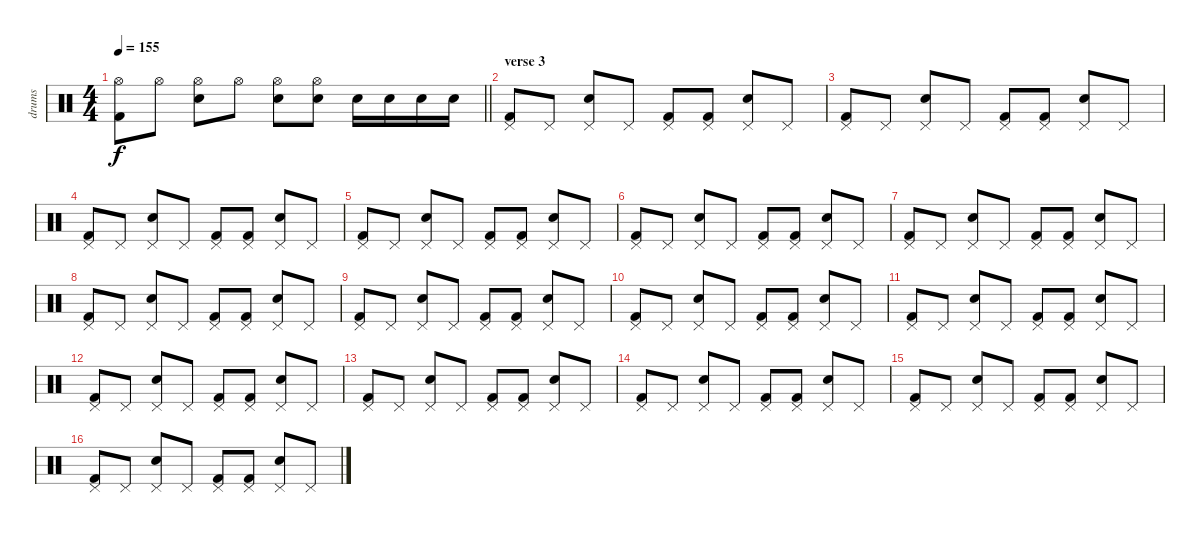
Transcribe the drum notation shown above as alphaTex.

\track ("drums" "drums") {instrument percussion}
\staff {score}
\articulation defaults
\ts (4 4)
\tempo 155
\clef neutral
\barLineRight lightlight
\ks c
("Kick (hit) 2" "Hi-Hat (open)").8{dy f} "Hi-Hat (open)".8 ("Electric Snare (hit)" "Hi-Hat (open)").8 "Hi-Hat (open)".8 ("Electric Snare (hit)" "Hi-Hat (open)").8 ("Electric Snare (hit)" "Hi-Hat (open)").8 "Electric Snare (hit)".16 "Electric Snare (hit)".16 "Electric Snare (hit)".16 "Electric Snare (hit)".16 |
\section ("" "verse 3")
("Kick (hit) 2" "Pedal Hi-Hat (hit)").8 "Pedal Hi-Hat (hit)".8 ("Electric Snare (hit)" "Pedal Hi-Hat (hit)").8 "Pedal Hi-Hat (hit)".8 ("Kick (hit) 2" "Pedal Hi-Hat (hit)").8 ("Kick (hit) 2" "Pedal Hi-Hat (hit)").8 ("Electric Snare (hit)" "Pedal Hi-Hat (hit)").8 "Pedal Hi-Hat (hit)".8 |
("Kick (hit) 2" "Pedal Hi-Hat (hit)").8 "Pedal Hi-Hat (hit)".8 ("Electric Snare (hit)" "Pedal Hi-Hat (hit)").8 "Pedal Hi-Hat (hit)".8 ("Kick (hit) 2" "Pedal Hi-Hat (hit)").8 ("Kick (hit) 2" "Pedal Hi-Hat (hit)").8 ("Electric Snare (hit)" "Pedal Hi-Hat (hit)").8 "Pedal Hi-Hat (hit)".8 |
("Kick (hit) 2" "Pedal Hi-Hat (hit)").8 "Pedal Hi-Hat (hit)".8 ("Electric Snare (hit)" "Pedal Hi-Hat (hit)").8 "Pedal Hi-Hat (hit)".8 ("Kick (hit) 2" "Pedal Hi-Hat (hit)").8 ("Kick (hit) 2" "Pedal Hi-Hat (hit)").8 ("Electric Snare (hit)" "Pedal Hi-Hat (hit)").8 "Pedal Hi-Hat (hit)".8 |
("Kick (hit) 2" "Pedal Hi-Hat (hit)").8 "Pedal Hi-Hat (hit)".8 ("Electric Snare (hit)" "Pedal Hi-Hat (hit)").8 "Pedal Hi-Hat (hit)".8 ("Kick (hit) 2" "Pedal Hi-Hat (hit)").8 ("Kick (hit) 2" "Pedal Hi-Hat (hit)").8 ("Electric Snare (hit)" "Pedal Hi-Hat (hit)").8 "Pedal Hi-Hat (hit)".8 |
("Kick (hit) 2" "Pedal Hi-Hat (hit)").8 "Pedal Hi-Hat (hit)".8 ("Electric Snare (hit)" "Pedal Hi-Hat (hit)").8 "Pedal Hi-Hat (hit)".8 ("Kick (hit) 2" "Pedal Hi-Hat (hit)").8 ("Kick (hit) 2" "Pedal Hi-Hat (hit)").8 ("Electric Snare (hit)" "Pedal Hi-Hat (hit)").8 "Pedal Hi-Hat (hit)".8 |
("Kick (hit) 2" "Pedal Hi-Hat (hit)").8 "Pedal Hi-Hat (hit)".8 ("Electric Snare (hit)" "Pedal Hi-Hat (hit)").8 "Pedal Hi-Hat (hit)".8 ("Kick (hit) 2" "Pedal Hi-Hat (hit)").8 ("Kick (hit) 2" "Pedal Hi-Hat (hit)").8 ("Electric Snare (hit)" "Pedal Hi-Hat (hit)").8 "Pedal Hi-Hat (hit)".8 |
("Kick (hit) 2" "Pedal Hi-Hat (hit)").8 "Pedal Hi-Hat (hit)".8 ("Electric Snare (hit)" "Pedal Hi-Hat (hit)").8 "Pedal Hi-Hat (hit)".8 ("Kick (hit) 2" "Pedal Hi-Hat (hit)").8 ("Kick (hit) 2" "Pedal Hi-Hat (hit)").8 ("Electric Snare (hit)" "Pedal Hi-Hat (hit)").8 "Pedal Hi-Hat (hit)".8 |
("Kick (hit) 2" "Pedal Hi-Hat (hit)").8 "Pedal Hi-Hat (hit)".8 ("Electric Snare (hit)" "Pedal Hi-Hat (hit)").8 "Pedal Hi-Hat (hit)".8 ("Kick (hit) 2" "Pedal Hi-Hat (hit)").8 ("Kick (hit) 2" "Pedal Hi-Hat (hit)").8 ("Electric Snare (hit)" "Pedal Hi-Hat (hit)").8 "Pedal Hi-Hat (hit)".8 |
("Kick (hit) 2" "Pedal Hi-Hat (hit)").8 "Pedal Hi-Hat (hit)".8 ("Electric Snare (hit)" "Pedal Hi-Hat (hit)").8 "Pedal Hi-Hat (hit)".8 ("Kick (hit) 2" "Pedal Hi-Hat (hit)").8 ("Kick (hit) 2" "Pedal Hi-Hat (hit)").8 ("Electric Snare (hit)" "Pedal Hi-Hat (hit)").8 "Pedal Hi-Hat (hit)".8 |
("Kick (hit) 2" "Pedal Hi-Hat (hit)").8 "Pedal Hi-Hat (hit)".8 ("Electric Snare (hit)" "Pedal Hi-Hat (hit)").8 "Pedal Hi-Hat (hit)".8 ("Kick (hit) 2" "Pedal Hi-Hat (hit)").8 ("Kick (hit) 2" "Pedal Hi-Hat (hit)").8 ("Electric Snare (hit)" "Pedal Hi-Hat (hit)").8 "Pedal Hi-Hat (hit)".8 |
("Kick (hit) 2" "Pedal Hi-Hat (hit)").8 "Pedal Hi-Hat (hit)".8 ("Electric Snare (hit)" "Pedal Hi-Hat (hit)").8 "Pedal Hi-Hat (hit)".8 ("Kick (hit) 2" "Pedal Hi-Hat (hit)").8 ("Kick (hit) 2" "Pedal Hi-Hat (hit)").8 ("Electric Snare (hit)" "Pedal Hi-Hat (hit)").8 "Pedal Hi-Hat (hit)".8 |
("Kick (hit) 2" "Pedal Hi-Hat (hit)").8 "Pedal Hi-Hat (hit)".8 ("Electric Snare (hit)" "Pedal Hi-Hat (hit)").8 "Pedal Hi-Hat (hit)".8 ("Kick (hit) 2" "Pedal Hi-Hat (hit)").8 ("Kick (hit) 2" "Pedal Hi-Hat (hit)").8 ("Electric Snare (hit)" "Pedal Hi-Hat (hit)").8 "Pedal Hi-Hat (hit)".8 |
("Kick (hit) 2" "Pedal Hi-Hat (hit)").8 "Pedal Hi-Hat (hit)".8 ("Electric Snare (hit)" "Pedal Hi-Hat (hit)").8 "Pedal Hi-Hat (hit)".8 ("Kick (hit) 2" "Pedal Hi-Hat (hit)").8 ("Kick (hit) 2" "Pedal Hi-Hat (hit)").8 ("Electric Snare (hit)" "Pedal Hi-Hat (hit)").8 "Pedal Hi-Hat (hit)".8 |
("Kick (hit) 2" "Pedal Hi-Hat (hit)").8 "Pedal Hi-Hat (hit)".8 ("Electric Snare (hit)" "Pedal Hi-Hat (hit)").8 "Pedal Hi-Hat (hit)".8 ("Kick (hit) 2" "Pedal Hi-Hat (hit)").8 ("Kick (hit) 2" "Pedal Hi-Hat (hit)").8 ("Electric Snare (hit)" "Pedal Hi-Hat (hit)").8 "Pedal Hi-Hat (hit)".8 |
("Kick (hit) 2" "Pedal Hi-Hat (hit)").8 "Pedal Hi-Hat (hit)".8 ("Electric Snare (hit)" "Pedal Hi-Hat (hit)").8 "Pedal Hi-Hat (hit)".8 ("Kick (hit) 2" "Pedal Hi-Hat (hit)").8 ("Kick (hit) 2" "Pedal Hi-Hat (hit)").8 ("Electric Snare (hit)" "Pedal Hi-Hat (hit)").8 "Pedal Hi-Hat (hit)".8
